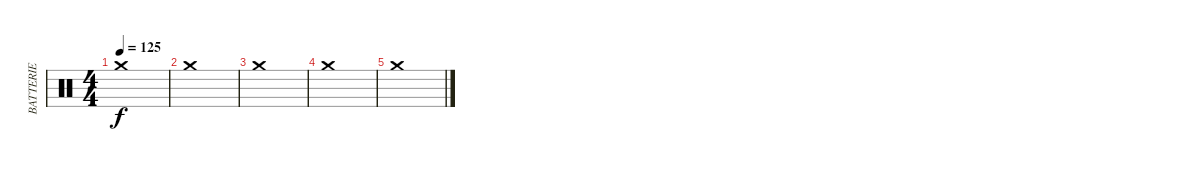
\track ("BATTERIE" "BATTERIE") {instrument percussion}
\staff {score}
\articulation defaults
\ts (4 4)
\tempo 125
\clef neutral
\ks c "Crash medium (hit)".1{dy f}
|
"Crash medium (hit)".1 |
"Crash medium (hit)".1 |
"Crash medium (hit)".1 |
"Crash medium (hit)".1
